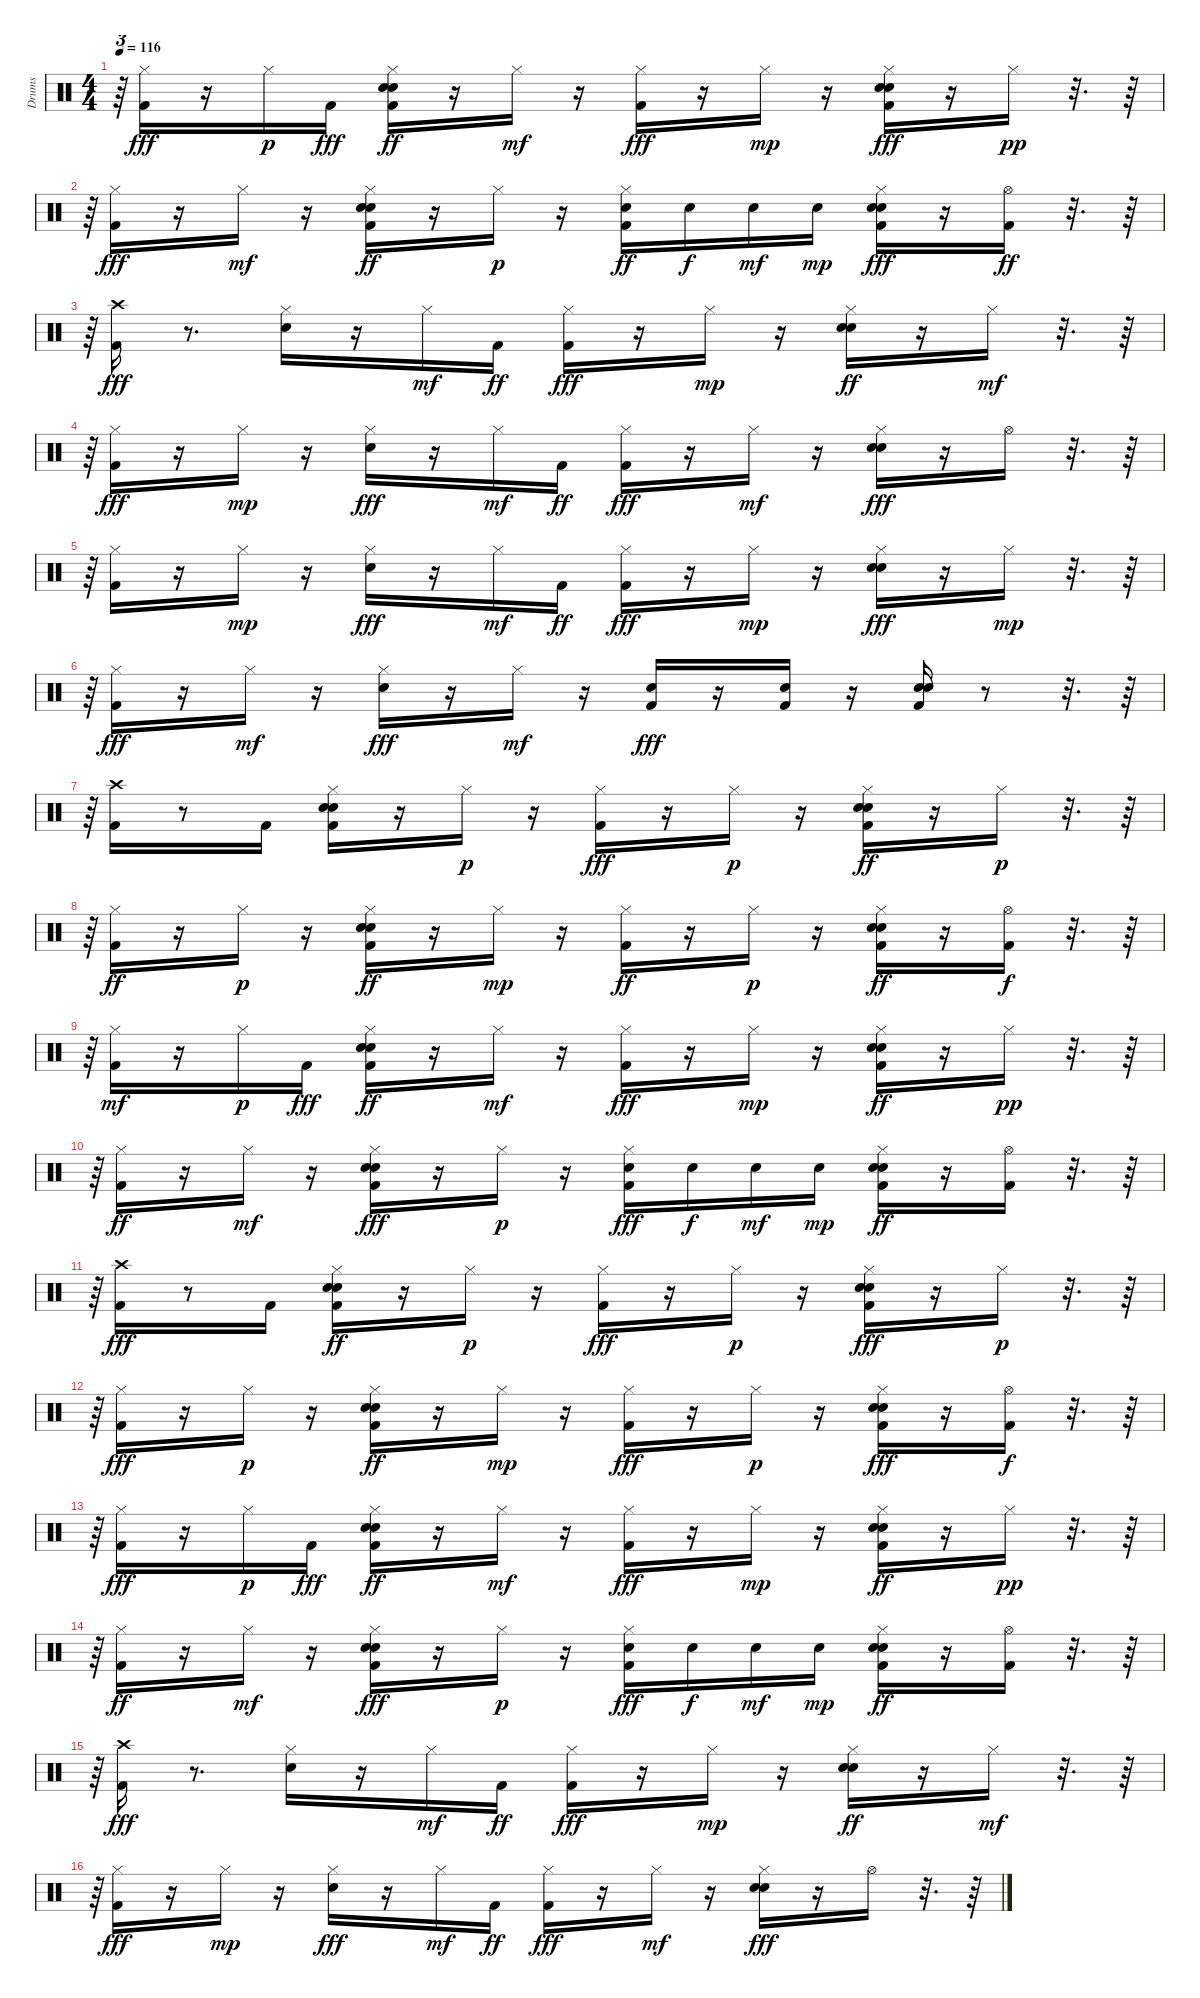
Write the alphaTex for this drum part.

\track ("Drums" "Drums") {instrument percussion}
\staff {score}
\articulation defaults
\ts (4 4)
\tempo 116
\clef neutral
\ks c
r.64{tu (3 2) dy f} ("Hi-Hat (closed)" "Kick (hit) 2").16{dy fff} r.16 "Hi-Hat (closed)".16{dy p} "Kick (hit) 2".16{dy fff} ("Hi-Hat (closed)" "Hand Clap (hit)" "Kick (hit) 2" "Snare (hit) 2").16{dy ff} r.16 "Hi-Hat (closed)".16{dy mf} r.16 ("Kick (hit) 2" "Hi-Hat (closed)").16{dy fff} r.16 "Hi-Hat (closed)".16{dy mp} r.16 ("Snare (hit) 2" "Hand Clap (hit)" "Hi-Hat (closed)" "Kick (hit) 2").16{dy fff} r.16 "Hi-Hat (closed)".16{dy pp} r.32{d} r.64 |
r.64{tu (3 2)} ("Hi-Hat (closed)" "Kick (hit) 2").16{dy fff} r.16 "Hi-Hat (closed)".16{dy mf} r.16 ("Hi-Hat (closed)" "Snare (hit) 2" "Kick (hit) 2" "Hand Clap (hit)").16{dy ff} r.16 "Hi-Hat (closed)".16{dy p} r.16 ("Kick (hit) 2" "Hi-Hat (closed)" "Snare (hit) 2").16{dy ff} "Snare (hit) 2".16{dy f} "Snare (hit) 2".16{dy mf} "Snare (hit) 2".16{dy mp} ("Kick (hit) 2" "Hand Clap (hit)" "Snare (hit) 2" "Hi-Hat (closed)").16{dy fff} r.16 ("Kick (hit) 2" "Hi-Hat (open)").16{dy ff} r.32{d} r.64 |
r.64{tu (3 2)} ("Kick (hit) 2" "Crash high (hit)").16{dy fff} r.8{d} ("Hi-Hat (closed)" "Snare (hit) 2").16 r.16 "Hi-Hat (closed)".16{dy mf} "Kick (hit) 2".16{dy ff} ("Hi-Hat (closed)" "Kick (hit) 2").16{dy fff} r.16 "Hi-Hat (closed)".16{dy mp} r.16 ("Snare (hit) 2" "Hand Clap (hit)" "Hi-Hat (closed)").16{dy ff} r.16 "Hi-Hat (closed)".16{dy mf} r.32{d} r.64 |
r.64{tu (3 2)} ("Hi-Hat (closed)" "Kick (hit) 2").16{dy fff} r.16 "Hi-Hat (closed)".16{dy mp} r.16 ("Snare (hit) 2" "Hi-Hat (closed)").16{dy fff} r.16 "Hi-Hat (closed)".16{dy mf} "Kick (hit) 2".16{dy ff} ("Kick (hit) 2" "Hi-Hat (closed)").16{dy fff} r.16 "Hi-Hat (closed)".16{dy mf} r.16 ("Hand Clap (hit)" "Snare (hit) 2" "Hi-Hat (closed)").16{dy fff} r.16 "Hi-Hat (open)".16 r.32{d} r.64 |
r.64{tu (3 2)} ("Kick (hit) 2" "Hi-Hat (closed)").16 r.16 "Hi-Hat (closed)".16{dy mp} r.16 ("Snare (hit) 2" "Hi-Hat (closed)").16{dy fff} r.16 "Hi-Hat (closed)".16{dy mf} "Kick (hit) 2".16{dy ff} ("Hi-Hat (closed)" "Kick (hit) 2").16{dy fff} r.16 "Hi-Hat (closed)".16{dy mp} r.16 ("Hi-Hat (closed)" "Hand Clap (hit)" "Snare (hit) 2").16{dy fff} r.16 "Hi-Hat (closed)".16{dy mp} r.32{d} r.64 |
r.64{tu (3 2)} ("Hi-Hat (closed)" "Kick (hit) 2").16{dy fff} r.16 "Hi-Hat (closed)".16{dy mf} r.16 ("Snare (hit) 2" "Hi-Hat (closed)").16{dy fff} r.16 "Hi-Hat (closed)".16{dy mf} r.16 ("Kick (hit) 2" "Snare (hit) 2").16{dy fff} r.16 ("Kick (hit) 2" "Snare (hit) 2").16 r.16 ("Kick (hit) 2" "Hand Clap (hit)" "Snare (hit) 2").16 r.8 r.32{d} r.64 |
r.64{tu (3 2)} ("Crash high (hit)" "Kick (hit) 2").16 r.8 "Kick (hit) 2".16 ("Snare (hit) 2" "Hi-Hat (closed)" "Hand Clap (hit)" "Kick (hit) 2").16 r.16 "Hi-Hat (closed)".16{dy p} r.16 ("Hi-Hat (closed)" "Kick (hit) 2").16{dy fff} r.16 "Hi-Hat (closed)".16{dy p} r.16 ("Hi-Hat (closed)" "Kick (hit) 2" "Hand Clap (hit)" "Snare (hit) 2").16{dy ff} r.16 "Hi-Hat (closed)".16{dy p} r.32{d} r.64 |
r.64{tu (3 2)} ("Kick (hit) 2" "Hi-Hat (closed)").16{dy ff} r.16 "Hi-Hat (closed)".16{dy p} r.16 ("Snare (hit) 2" "Hi-Hat (closed)" "Kick (hit) 2" "Hand Clap (hit)").16{dy ff} r.16 "Hi-Hat (closed)".16{dy mp} r.16 ("Kick (hit) 2" "Hi-Hat (closed)").16{dy ff} r.16 "Hi-Hat (closed)".16{dy p} r.16 ("Kick (hit) 2" "Snare (hit) 2" "Hand Clap (hit)" "Hi-Hat (closed)").16{dy ff} r.16 ("Hi-Hat (open)" "Kick (hit) 2").16{dy f} r.32{d} r.64 |
r.64{tu (3 2)} ("Kick (hit) 2" "Hi-Hat (closed)").16{dy mf} r.16 "Hi-Hat (closed)".16{dy p} "Kick (hit) 2".16{dy fff} ("Kick (hit) 2" "Snare (hit) 2" "Hi-Hat (closed)" "Hand Clap (hit)").16{dy ff} r.16 "Hi-Hat (closed)".16{dy mf} r.16 ("Hi-Hat (closed)" "Kick (hit) 2").16{dy fff} r.16 "Hi-Hat (closed)".16{dy mp} r.16 ("Kick (hit) 2" "Snare (hit) 2" "Hand Clap (hit)" "Hi-Hat (closed)").16{dy ff} r.16 "Hi-Hat (closed)".16{dy pp} r.32{d} r.64 |
r.64{tu (3 2)} ("Kick (hit) 2" "Hi-Hat (closed)").16{dy ff} r.16 "Hi-Hat (closed)".16{dy mf} r.16 ("Hi-Hat (closed)" "Hand Clap (hit)" "Snare (hit) 2" "Kick (hit) 2").16{dy fff} r.16 "Hi-Hat (closed)".16{dy p} r.16 ("Snare (hit) 2" "Hi-Hat (closed)" "Kick (hit) 2").16{dy fff} "Snare (hit) 2".16{dy f} "Snare (hit) 2".16{dy mf} "Snare (hit) 2".16{dy mp} ("Kick (hit) 2" "Snare (hit) 2" "Hi-Hat (closed)" "Hand Clap (hit)").16{dy ff} r.16 ("Hi-Hat (open)" "Kick (hit) 2").16 r.32{d} r.64 |
r.64{tu (3 2)} ("Crash high (hit)" "Kick (hit) 2").16{dy fff} r.8 "Kick (hit) 2".16 ("Hi-Hat (closed)" "Kick (hit) 2" "Snare (hit) 2" "Hand Clap (hit)").16{dy ff} r.16 "Hi-Hat (closed)".16{dy p} r.16 ("Hi-Hat (closed)" "Kick (hit) 2").16{dy fff} r.16 "Hi-Hat (closed)".16{dy p} r.16 ("Snare (hit) 2" "Hand Clap (hit)" "Kick (hit) 2" "Hi-Hat (closed)").16{dy fff} r.16 "Hi-Hat (closed)".16{dy p} r.32{d} r.64 |
r.64{tu (3 2)} ("Hi-Hat (closed)" "Kick (hit) 2").16{dy fff} r.16 "Hi-Hat (closed)".16{dy p} r.16 ("Snare (hit) 2" "Hi-Hat (closed)" "Kick (hit) 2" "Hand Clap (hit)").16{dy ff} r.16 "Hi-Hat (closed)".16{dy mp} r.16 ("Hi-Hat (closed)" "Kick (hit) 2").16{dy fff} r.16 "Hi-Hat (closed)".16{dy p} r.16 ("Snare (hit) 2" "Hi-Hat (closed)" "Hand Clap (hit)" "Kick (hit) 2").16{dy fff} r.16 ("Hi-Hat (open)" "Kick (hit) 2").16{dy f} r.32{d} r.64 |
r.64{tu (3 2)} ("Hi-Hat (closed)" "Kick (hit) 2").16{dy fff} r.16 "Hi-Hat (closed)".16{dy p} "Kick (hit) 2".16{dy fff} ("Snare (hit) 2" "Hand Clap (hit)" "Kick (hit) 2" "Hi-Hat (closed)").16{dy ff} r.16 "Hi-Hat (closed)".16{dy mf} r.16 ("Kick (hit) 2" "Hi-Hat (closed)").16{dy fff} r.16 "Hi-Hat (closed)".16{dy mp} r.16 ("Kick (hit) 2" "Snare (hit) 2" "Hand Clap (hit)" "Hi-Hat (closed)").16{dy ff} r.16 "Hi-Hat (closed)".16{dy pp} r.32{d} r.64 |
r.64{tu (3 2)} ("Kick (hit) 2" "Hi-Hat (closed)").16{dy ff} r.16 "Hi-Hat (closed)".16{dy mf} r.16 ("Snare (hit) 2" "Hi-Hat (closed)" "Hand Clap (hit)" "Kick (hit) 2").16{dy fff} r.16 "Hi-Hat (closed)".16{dy p} r.16 ("Hi-Hat (closed)" "Snare (hit) 2" "Kick (hit) 2").16{dy fff} "Snare (hit) 2".16{dy f} "Snare (hit) 2".16{dy mf} "Snare (hit) 2".16{dy mp} ("Kick (hit) 2" "Hi-Hat (closed)" "Snare (hit) 2" "Hand Clap (hit)").16{dy ff} r.16 ("Hi-Hat (open)" "Kick (hit) 2").16 r.32{d} r.64 |
r.64{tu (3 2)} ("Kick (hit) 2" "Crash high (hit)").16{dy fff} r.8{d} ("Snare (hit) 2" "Hi-Hat (closed)").16 r.16 "Hi-Hat (closed)".16{dy mf} "Kick (hit) 2".16{dy ff} ("Hi-Hat (closed)" "Kick (hit) 2").16{dy fff} r.16 "Hi-Hat (closed)".16{dy mp} r.16 ("Hand Clap (hit)" "Snare (hit) 2" "Hi-Hat (closed)").16{dy ff} r.16 "Hi-Hat (closed)".16{dy mf} r.32{d} r.64 |
r.64{tu (3 2)} ("Kick (hit) 2" "Hi-Hat (closed)").16{dy fff} r.16 "Hi-Hat (closed)".16{dy mp} r.16 ("Hi-Hat (closed)" "Snare (hit) 2").16{dy fff} r.16 "Hi-Hat (closed)".16{dy mf} "Kick (hit) 2".16{dy ff} ("Kick (hit) 2" "Hi-Hat (closed)").16{dy fff} r.16 "Hi-Hat (closed)".16{dy mf} r.16 ("Hi-Hat (closed)" "Snare (hit) 2" "Hand Clap (hit)").16{dy fff} r.16 "Hi-Hat (open)".16 r.32{d} r.64
